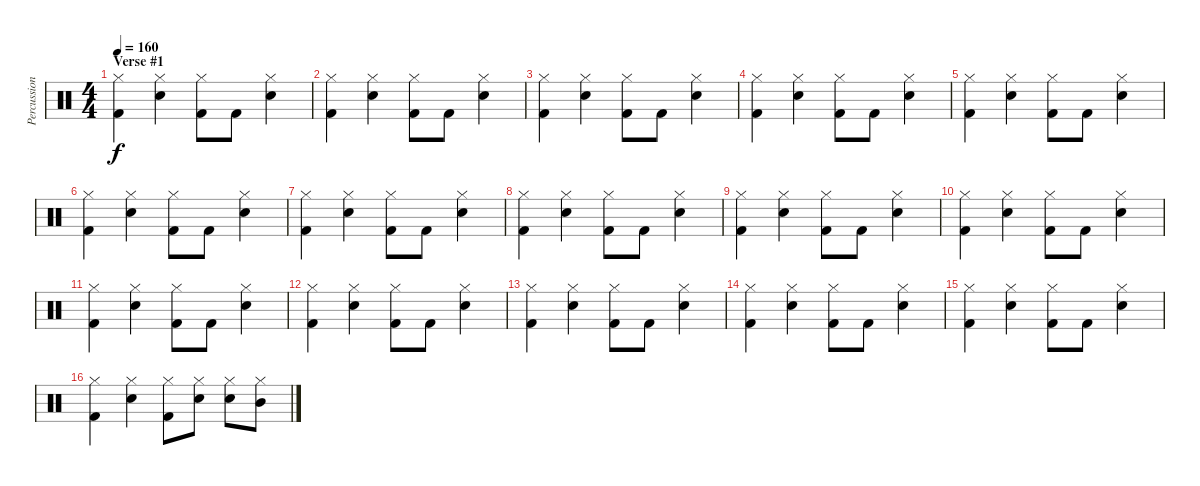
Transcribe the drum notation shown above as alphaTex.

\track ("Percussion" "Percussion") {instrument percussion}
\staff {score}
\articulation defaults
\ts (4 4)
\section ("" "Verse #1")
\tempo 160
\clef neutral
\ks c
("Hi-Hat (closed)" "Kick (hit) 2").4{dy f} ("Hi-Hat (closed)" "Electric Snare (hit)").4 ("Hi-Hat (closed)" "Kick (hit) 2").8 "Kick (hit) 2".8 ("Hi-Hat (closed)" "Electric Snare (hit)").4 |
("Hi-Hat (closed)" "Kick (hit) 2").4 ("Hi-Hat (closed)" "Electric Snare (hit)").4 ("Hi-Hat (closed)" "Kick (hit) 2").8 "Kick (hit) 2".8 ("Hi-Hat (closed)" "Electric Snare (hit)").4 |
("Hi-Hat (closed)" "Kick (hit) 2").4 ("Hi-Hat (closed)" "Electric Snare (hit)").4 ("Hi-Hat (closed)" "Kick (hit) 2").8 "Kick (hit) 2".8 ("Hi-Hat (closed)" "Electric Snare (hit)").4 |
("Hi-Hat (closed)" "Kick (hit) 2").4 ("Hi-Hat (closed)" "Electric Snare (hit)").4 ("Hi-Hat (closed)" "Kick (hit) 2").8 "Kick (hit) 2".8 ("Hi-Hat (closed)" "Electric Snare (hit)").4 |
("Hi-Hat (closed)" "Kick (hit) 2").4 ("Hi-Hat (closed)" "Electric Snare (hit)").4 ("Hi-Hat (closed)" "Kick (hit) 2").8 "Kick (hit) 2".8 ("Hi-Hat (closed)" "Electric Snare (hit)").4 |
("Hi-Hat (closed)" "Kick (hit) 2").4 ("Hi-Hat (closed)" "Electric Snare (hit)").4 ("Hi-Hat (closed)" "Kick (hit) 2").8 "Kick (hit) 2".8 ("Hi-Hat (closed)" "Electric Snare (hit)").4 |
("Hi-Hat (closed)" "Kick (hit) 2").4 ("Hi-Hat (closed)" "Electric Snare (hit)").4 ("Hi-Hat (closed)" "Kick (hit) 2").8 "Kick (hit) 2".8 ("Hi-Hat (closed)" "Electric Snare (hit)").4 |
("Hi-Hat (closed)" "Kick (hit) 2").4 ("Hi-Hat (closed)" "Electric Snare (hit)").4 ("Hi-Hat (closed)" "Kick (hit) 2").8 "Kick (hit) 2".8 ("Hi-Hat (closed)" "Electric Snare (hit)").4 |
("Hi-Hat (closed)" "Kick (hit) 2").4 ("Hi-Hat (closed)" "Electric Snare (hit)").4 ("Hi-Hat (closed)" "Kick (hit) 2").8 "Kick (hit) 2".8 ("Hi-Hat (closed)" "Electric Snare (hit)").4 |
("Hi-Hat (closed)" "Kick (hit) 2").4 ("Hi-Hat (closed)" "Electric Snare (hit)").4 ("Hi-Hat (closed)" "Kick (hit) 2").8 "Kick (hit) 2".8 ("Hi-Hat (closed)" "Electric Snare (hit)").4 |
("Hi-Hat (closed)" "Kick (hit) 2").4 ("Hi-Hat (closed)" "Electric Snare (hit)").4 ("Hi-Hat (closed)" "Kick (hit) 2").8 "Kick (hit) 2".8 ("Hi-Hat (closed)" "Electric Snare (hit)").4 |
("Hi-Hat (closed)" "Kick (hit) 2").4 ("Hi-Hat (closed)" "Electric Snare (hit)").4 ("Hi-Hat (closed)" "Kick (hit) 2").8 "Kick (hit) 2".8 ("Hi-Hat (closed)" "Electric Snare (hit)").4 |
("Hi-Hat (closed)" "Kick (hit) 2").4 ("Hi-Hat (closed)" "Electric Snare (hit)").4 ("Hi-Hat (closed)" "Kick (hit) 2").8 "Kick (hit) 2".8 ("Hi-Hat (closed)" "Electric Snare (hit)").4 |
("Hi-Hat (closed)" "Kick (hit) 2").4 ("Hi-Hat (closed)" "Electric Snare (hit)").4 ("Hi-Hat (closed)" "Kick (hit) 2").8 "Kick (hit) 2".8 ("Hi-Hat (closed)" "Electric Snare (hit)").4 |
("Hi-Hat (closed)" "Kick (hit) 2").4 ("Hi-Hat (closed)" "Electric Snare (hit)").4 ("Hi-Hat (closed)" "Kick (hit) 2").8 "Kick (hit) 2".8 ("Hi-Hat (closed)" "Electric Snare (hit)").4 |
("Hi-Hat (closed)" "Kick (hit) 2").4 ("Hi-Hat (closed)" "Electric Snare (hit)").4 ("Hi-Hat (closed)" "Kick (hit) 2").8 ("Hi-Hat (closed)" "Electric Snare (hit)").8 ("Hi-Hat (closed)" "Electric Snare (hit)").8 ("Hi-Hat (closed)" "Mid Tom (hit)").8
